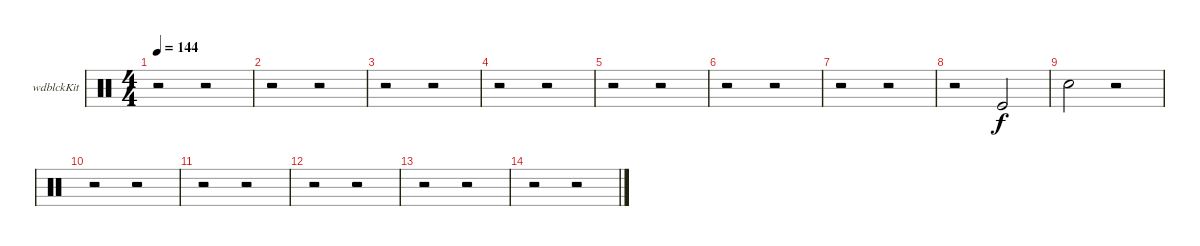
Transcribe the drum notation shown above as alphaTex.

\bracketExtendMode groupsimilarinstruments
\firstSystemTrackNameOrientation horizontal
\otherSystemsTrackNameOrientation horizontal
\track ("Woodblock" "wdblckKit") {instrument percussion}
\staff {score}
\articulation defaults
\ts (4 4)
\tempo 144
\clef neutral
\ks c
r.2{dy f} r.2 |
r.2 r.2 |
r.2 r.2 |
r.2 r.2 |
r.2 r.2 |
r.2 r.2 |
r.2 r.2 |
r.2 "Kick (hit)".2 |
"Snare (hit) 2".2 r.2 |
r.2 r.2 |
r.2 r.2 |
r.2 r.2 |
r.2 r.2 |
r.2 r.2
